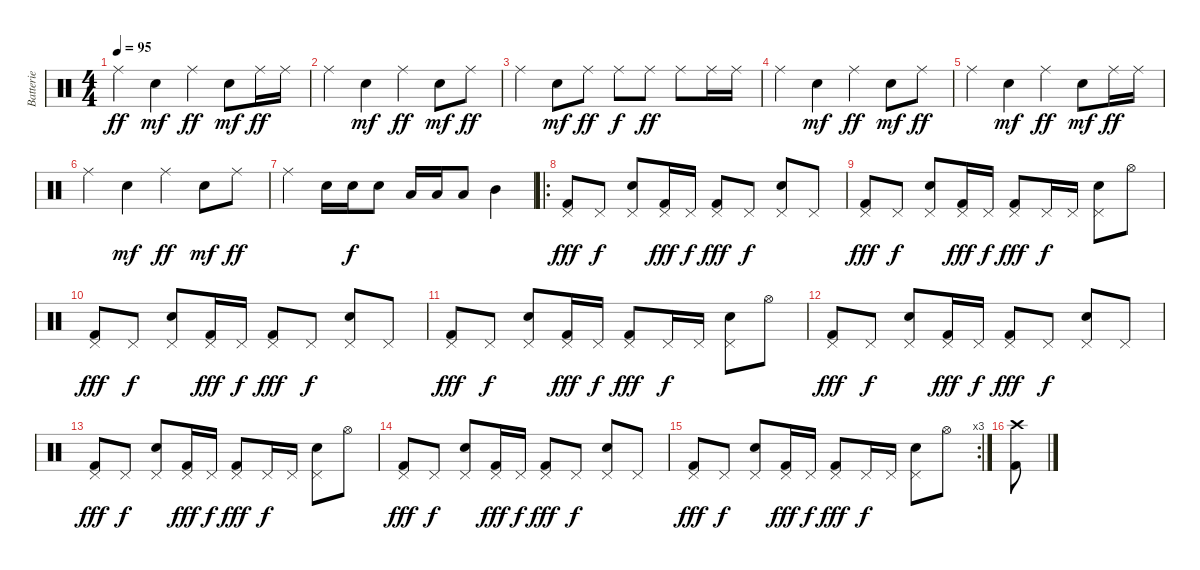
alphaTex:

\track ("Batterie" "Batterie") {instrument percussion}
\staff {score}
\articulation defaults
\ts (4 4)
\tempo 95
\clef neutral
\ks c "Ride (middle)".4{dy ff} "Electric Snare (hit)".4{dy mf} "Ride (middle)".4{dy ff} "Electric Snare (hit)".8{dy mf} "Ride (middle)".16{dy ff} "Ride (middle)".16
|
"Ride (middle)".4 "Electric Snare (hit)".4{dy mf} "Ride (middle)".4{dy ff} "Electric Snare (hit)".8{dy mf} "Ride (middle)".8{dy ff} |
"Ride (middle)".4 "Electric Snare (hit)".8{dy mf} "Ride (middle)".8{dy ff} "Ride (middle)".8{dy f} "Ride (middle)".8{dy ff} "Ride (middle)".8 "Ride (middle)".16 "Ride (middle)".16 |
"Ride (middle)".4 "Electric Snare (hit)".4{dy mf} "Ride (middle)".4{dy ff} "Electric Snare (hit)".8{dy mf} "Ride (middle)".8{dy ff} |
"Ride (middle)".4 "Electric Snare (hit)".4{dy mf} "Ride (middle)".4{dy ff} "Electric Snare (hit)".8{dy mf} "Ride (middle)".16{dy ff} "Ride (middle)".16 |
"Ride (middle)".4 "Electric Snare (hit)".4{dy mf} "Ride (middle)".4{dy ff} "Electric Snare (hit)".8{dy mf} "Ride (middle)".8{dy ff} |
"Ride (middle)".4 "Electric Snare (hit)".16 "Electric Snare (hit)".16{dy f} "Electric Snare (hit)".8 "Low Tom (hit)".16 "Low Tom (hit)".16 "Low Tom (hit)".8 "Mid Tom (hit)".4 |
\ro
("Pedal Hi-Hat (hit)" "Kick (hit) 2").8{dy fff} "Pedal Hi-Hat (hit)".8{dy f} ("Pedal Hi-Hat (hit)" "Electric Snare (hit)").8 ("Pedal Hi-Hat (hit)" "Kick (hit) 2").16{dy fff} "Pedal Hi-Hat (hit)".16{dy f} ("Pedal Hi-Hat (hit)" "Kick (hit) 2").8{dy fff} "Pedal Hi-Hat (hit)".8{dy f} ("Pedal Hi-Hat (hit)" "Electric Snare (hit)").8 "Pedal Hi-Hat (hit)".8 |
("Pedal Hi-Hat (hit)" "Kick (hit) 2").8{dy fff} "Pedal Hi-Hat (hit)".8{dy f} ("Pedal Hi-Hat (hit)" "Electric Snare (hit)").8 ("Pedal Hi-Hat (hit)" "Kick (hit) 2").16{dy fff} "Pedal Hi-Hat (hit)".16{dy f} ("Pedal Hi-Hat (hit)" "Kick (hit) 2").8{dy fff} "Pedal Hi-Hat (hit)".16{dy f} "Pedal Hi-Hat (hit)".16 ("Pedal Hi-Hat (hit)" "Electric Snare (hit)").8 "Hi-Hat (open)".8 |
("Pedal Hi-Hat (hit)" "Kick (hit) 2").8{dy fff} "Pedal Hi-Hat (hit)".8{dy f} ("Pedal Hi-Hat (hit)" "Electric Snare (hit)").8 ("Pedal Hi-Hat (hit)" "Kick (hit) 2").16{dy fff} "Pedal Hi-Hat (hit)".16{dy f} ("Pedal Hi-Hat (hit)" "Kick (hit) 2").8{dy fff} "Pedal Hi-Hat (hit)".8{dy f} ("Pedal Hi-Hat (hit)" "Electric Snare (hit)").8 "Pedal Hi-Hat (hit)".8 |
("Pedal Hi-Hat (hit)" "Kick (hit) 2").8{dy fff} "Pedal Hi-Hat (hit)".8{dy f} ("Pedal Hi-Hat (hit)" "Electric Snare (hit)").8 ("Pedal Hi-Hat (hit)" "Kick (hit) 2").16{dy fff} "Pedal Hi-Hat (hit)".16{dy f} ("Pedal Hi-Hat (hit)" "Kick (hit) 2").8{dy fff} "Pedal Hi-Hat (hit)".16{dy f} "Pedal Hi-Hat (hit)".16 ("Pedal Hi-Hat (hit)" "Electric Snare (hit)").8 "Hi-Hat (open)".8 |
("Pedal Hi-Hat (hit)" "Kick (hit) 2").8{dy fff} "Pedal Hi-Hat (hit)".8{dy f} ("Pedal Hi-Hat (hit)" "Electric Snare (hit)").8 ("Pedal Hi-Hat (hit)" "Kick (hit) 2").16{dy fff} "Pedal Hi-Hat (hit)".16{dy f} ("Pedal Hi-Hat (hit)" "Kick (hit) 2").8{dy fff} "Pedal Hi-Hat (hit)".8{dy f} ("Pedal Hi-Hat (hit)" "Electric Snare (hit)").8 "Pedal Hi-Hat (hit)".8 |
("Pedal Hi-Hat (hit)" "Kick (hit) 2").8{dy fff} "Pedal Hi-Hat (hit)".8{dy f} ("Pedal Hi-Hat (hit)" "Electric Snare (hit)").8 ("Pedal Hi-Hat (hit)" "Kick (hit) 2").16{dy fff} "Pedal Hi-Hat (hit)".16{dy f} ("Pedal Hi-Hat (hit)" "Kick (hit) 2").8{dy fff} "Pedal Hi-Hat (hit)".16{dy f} "Pedal Hi-Hat (hit)".16 ("Pedal Hi-Hat (hit)" "Electric Snare (hit)").8 "Hi-Hat (open)".8 |
("Pedal Hi-Hat (hit)" "Kick (hit) 2").8{dy fff} "Pedal Hi-Hat (hit)".8{dy f} ("Pedal Hi-Hat (hit)" "Electric Snare (hit)").8 ("Pedal Hi-Hat (hit)" "Kick (hit) 2").16{dy fff} "Pedal Hi-Hat (hit)".16{dy f} ("Pedal Hi-Hat (hit)" "Kick (hit) 2").8{dy fff} "Pedal Hi-Hat (hit)".8{dy f} ("Pedal Hi-Hat (hit)" "Electric Snare (hit)").8 "Pedal Hi-Hat (hit)".8 |
\rc 3
("Pedal Hi-Hat (hit)" "Kick (hit) 2").8{dy fff} "Pedal Hi-Hat (hit)".8{dy f} ("Pedal Hi-Hat (hit)" "Electric Snare (hit)").8 ("Pedal Hi-Hat (hit)" "Kick (hit) 2").16{dy fff} "Pedal Hi-Hat (hit)".16{dy f} ("Pedal Hi-Hat (hit)" "Kick (hit) 2").8{dy fff} "Pedal Hi-Hat (hit)".16{dy f} "Pedal Hi-Hat (hit)".16 ("Pedal Hi-Hat (hit)" "Electric Snare (hit)").8 "Hi-Hat (open)".8 |
("Crash high (hit)" "Kick (hit) 2").8
